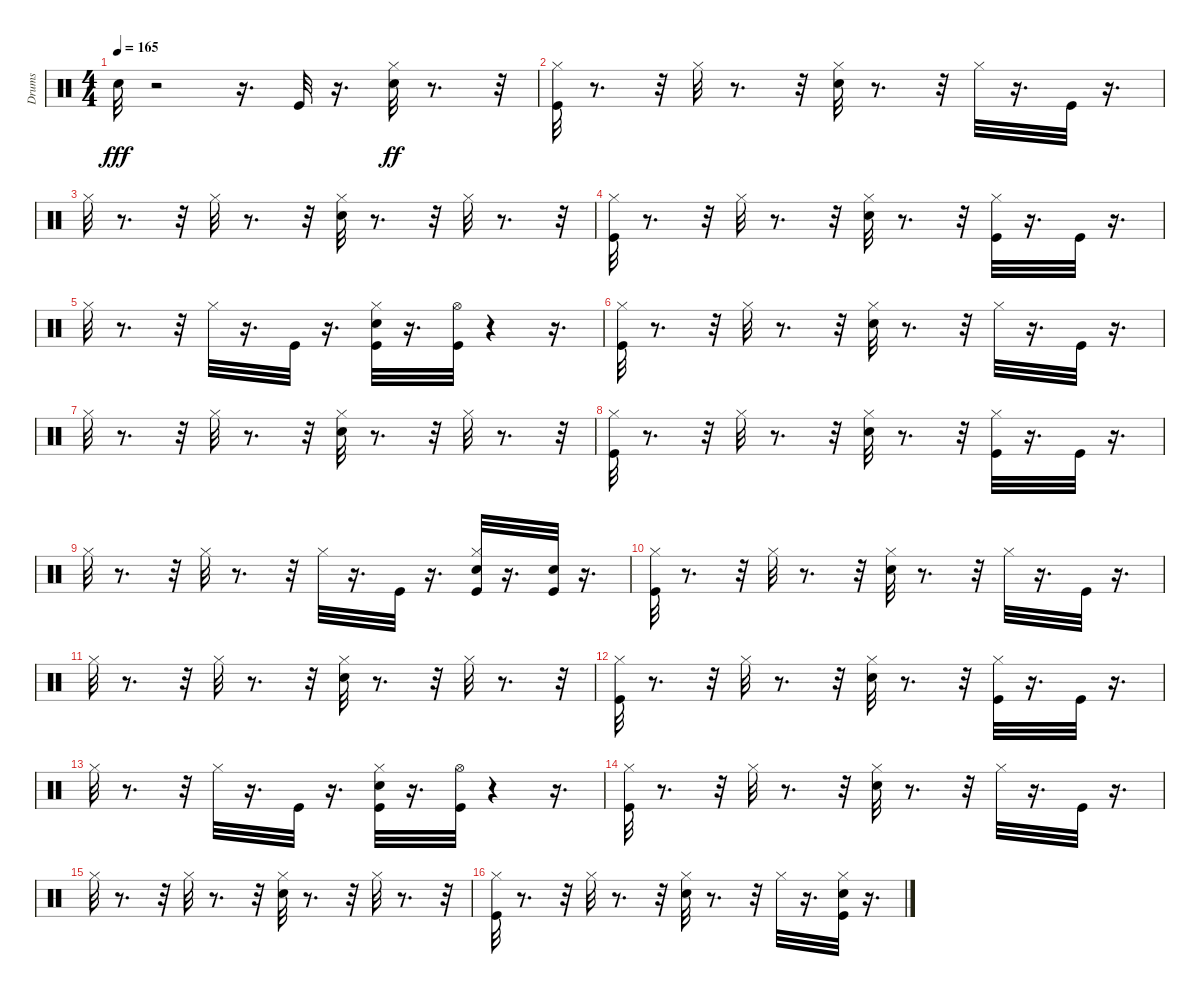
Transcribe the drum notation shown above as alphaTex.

\track ("Drums" "Drums") {instrument percussion}
\staff {score}
\articulation defaults
\ts (4 4)
\tempo 165
\clef neutral
\ks c "Snare (hit)".32{dy fff}
r.2 r.16{d} "Kick (hit)".32 r.16{d} ("Hi-Hat (closed)" "Electric Snare (hit)").32{dy ff} r.8{d} r.32 |
("Hi-Hat (closed)" "Kick (hit)").32 r.8{d} r.32 "Hi-Hat (closed)".32 r.8{d} r.32 ("Hi-Hat (closed)" "Electric Snare (hit)").32 r.8{d} r.32 "Hi-Hat (closed)".32 r.16{d} "Kick (hit)".32 r.16{d} |
"Hi-Hat (closed)".32 r.8{d} r.32 "Hi-Hat (closed)".32 r.8{d} r.32 ("Electric Snare (hit)" "Hi-Hat (closed)").32 r.8{d} r.32 "Hi-Hat (closed)".32 r.8{d} r.32 |
("Hi-Hat (closed)" "Kick (hit)").32 r.8{d} r.32 "Hi-Hat (closed)".32 r.8{d} r.32 ("Electric Snare (hit)" "Hi-Hat (closed)").32 r.8{d} r.32 ("Kick (hit)" "Hi-Hat (closed)").32 r.16{d} "Kick (hit)".32 r.16{d} |
"Hi-Hat (closed)".32 r.8{d} r.32 "Hi-Hat (closed)".32 r.16{d} "Kick (hit)".32 r.16{d} ("Kick (hit)" "Electric Snare (hit)" "Hi-Hat (closed)").32 r.16{d} ("Kick (hit)" "Hi-Hat (open)").32 r.4 r.16{d} |
("Kick (hit)" "Hi-Hat (closed)").32 r.8{d} r.32 "Hi-Hat (closed)".32 r.8{d} r.32 ("Hi-Hat (closed)" "Electric Snare (hit)").32 r.8{d} r.32 "Hi-Hat (closed)".32 r.16{d} "Kick (hit)".32 r.16{d} |
"Hi-Hat (closed)".32 r.8{d} r.32 "Hi-Hat (closed)".32 r.8{d} r.32 ("Electric Snare (hit)" "Hi-Hat (closed)").32 r.8{d} r.32 "Hi-Hat (closed)".32 r.8{d} r.32 |
("Kick (hit)" "Hi-Hat (closed)").32 r.8{d} r.32 "Hi-Hat (closed)".32 r.8{d} r.32 ("Hi-Hat (closed)" "Electric Snare (hit)").32 r.8{d} r.32 ("Kick (hit)" "Hi-Hat (closed)").32 r.16{d} "Kick (hit)".32 r.16{d} |
"Hi-Hat (closed)".32 r.8{d} r.32 "Hi-Hat (closed)".32 r.8{d} r.32 "Hi-Hat (closed)".32 r.16{d} "Kick (hit)".32 r.16{d} ("Electric Snare (hit)" "Hi-Hat (closed)" "Kick (hit)").32 r.16{d} ("Electric Snare (hit)" "Kick (hit)").32 r.16{d} |
("Kick (hit)" "Hi-Hat (closed)").32 r.8{d} r.32 "Hi-Hat (closed)".32 r.8{d} r.32 ("Electric Snare (hit)" "Hi-Hat (closed)").32 r.8{d} r.32 "Hi-Hat (closed)".32 r.16{d} "Kick (hit)".32 r.16{d} |
"Hi-Hat (closed)".32 r.8{d} r.32 "Hi-Hat (closed)".32 r.8{d} r.32 ("Electric Snare (hit)" "Hi-Hat (closed)").32 r.8{d} r.32 "Hi-Hat (closed)".32 r.8{d} r.32 |
("Kick (hit)" "Hi-Hat (closed)").32 r.8{d} r.32 "Hi-Hat (closed)".32 r.8{d} r.32 ("Electric Snare (hit)" "Hi-Hat (closed)").32 r.8{d} r.32 ("Kick (hit)" "Hi-Hat (closed)").32 r.16{d} "Kick (hit)".32 r.16{d} |
"Hi-Hat (closed)".32 r.8{d} r.32 "Hi-Hat (closed)".32 r.16{d} "Kick (hit)".32 r.16{d} ("Kick (hit)" "Electric Snare (hit)" "Hi-Hat (closed)").32 r.16{d} ("Hi-Hat (open)" "Kick (hit)").32 r.4 r.16{d} |
("Kick (hit)" "Hi-Hat (closed)").32 r.8{d} r.32 "Hi-Hat (closed)".32 r.8{d} r.32 ("Hi-Hat (closed)" "Electric Snare (hit)").32 r.8{d} r.32 "Hi-Hat (closed)".32 r.16{d} "Kick (hit)".32 r.16{d} |
"Hi-Hat (closed)".32 r.8{d} r.32 "Hi-Hat (closed)".32 r.8{d} r.32 ("Electric Snare (hit)" "Hi-Hat (closed)").32 r.8{d} r.32 "Hi-Hat (closed)".32 r.8{d} r.32 |
("Kick (hit)" "Hi-Hat (closed)").32 r.8{d} r.32 "Hi-Hat (closed)".32 r.8{d} r.32 ("Hi-Hat (closed)" "Electric Snare (hit)").32 r.8{d} r.32 "Hi-Hat (closed)".32 r.16{d} ("Kick (hit)" "Electric Snare (hit)" "Hi-Hat (closed)").32 r.16{d}
